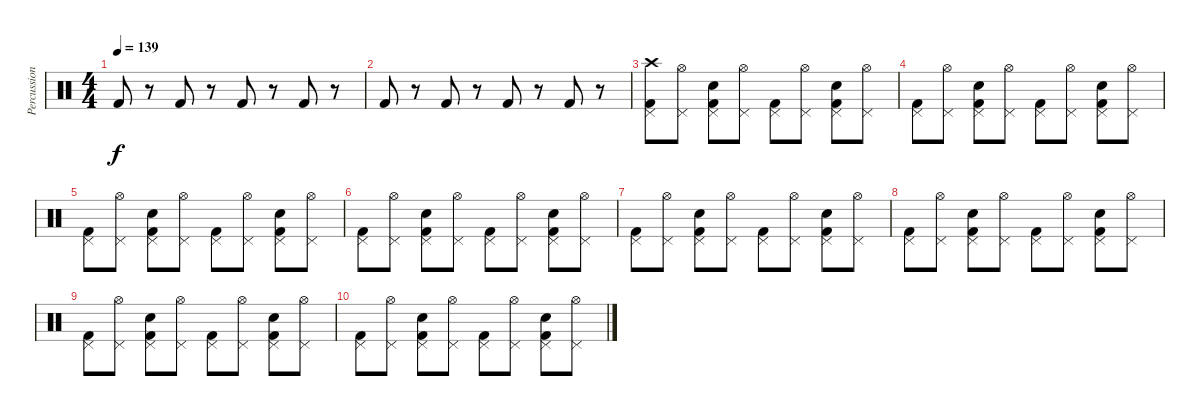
\track ("Percussion" "Percussion") {instrument percussion}
\staff {score}
\articulation defaults
\ts (4 4)
\tempo 139
\clef neutral
\ks c "Kick (hit) 2".8{dy f}
r.8 "Kick (hit) 2".8 r.8 "Kick (hit) 2".8 r.8 "Kick (hit) 2".8 r.8 |
"Kick (hit) 2".8 r.8 "Kick (hit) 2".8 r.8 "Kick (hit) 2".8 r.8 "Kick (hit) 2".8 r.8 |
("Kick (hit) 2" "Pedal Hi-Hat (hit)" "Crash high (hit)").8 ("Pedal Hi-Hat (hit)" "Hi-Hat (open)").8 ("Kick (hit) 2" "Pedal Hi-Hat (hit)" "Electric Snare (hit)").8 ("Pedal Hi-Hat (hit)" "Hi-Hat (open)").8 ("Kick (hit) 2" "Pedal Hi-Hat (hit)").8 ("Pedal Hi-Hat (hit)" "Hi-Hat (open)").8 ("Kick (hit) 2" "Pedal Hi-Hat (hit)" "Electric Snare (hit)").8 ("Pedal Hi-Hat (hit)" "Hi-Hat (open)").8 |
("Kick (hit) 2" "Pedal Hi-Hat (hit)").8 ("Pedal Hi-Hat (hit)" "Hi-Hat (open)").8 ("Kick (hit) 2" "Pedal Hi-Hat (hit)" "Electric Snare (hit)").8 ("Pedal Hi-Hat (hit)" "Hi-Hat (open)").8 ("Kick (hit) 2" "Pedal Hi-Hat (hit)").8 ("Pedal Hi-Hat (hit)" "Hi-Hat (open)").8 ("Kick (hit) 2" "Pedal Hi-Hat (hit)" "Electric Snare (hit)").8 ("Pedal Hi-Hat (hit)" "Hi-Hat (open)").8 |
("Kick (hit) 2" "Pedal Hi-Hat (hit)").8 ("Pedal Hi-Hat (hit)" "Hi-Hat (open)").8 ("Kick (hit) 2" "Pedal Hi-Hat (hit)" "Electric Snare (hit)").8 ("Pedal Hi-Hat (hit)" "Hi-Hat (open)").8 ("Kick (hit) 2" "Pedal Hi-Hat (hit)").8 ("Pedal Hi-Hat (hit)" "Hi-Hat (open)").8 ("Kick (hit) 2" "Pedal Hi-Hat (hit)" "Electric Snare (hit)").8 ("Pedal Hi-Hat (hit)" "Hi-Hat (open)").8 |
("Kick (hit) 2" "Pedal Hi-Hat (hit)").8 ("Pedal Hi-Hat (hit)" "Hi-Hat (open)").8 ("Kick (hit) 2" "Pedal Hi-Hat (hit)" "Electric Snare (hit)").8 ("Pedal Hi-Hat (hit)" "Hi-Hat (open)").8 ("Kick (hit) 2" "Pedal Hi-Hat (hit)").8 ("Pedal Hi-Hat (hit)" "Hi-Hat (open)").8 ("Kick (hit) 2" "Pedal Hi-Hat (hit)" "Electric Snare (hit)").8 ("Pedal Hi-Hat (hit)" "Hi-Hat (open)").8 |
("Kick (hit) 2" "Pedal Hi-Hat (hit)").8 ("Pedal Hi-Hat (hit)" "Hi-Hat (open)").8 ("Kick (hit) 2" "Pedal Hi-Hat (hit)" "Electric Snare (hit)").8 ("Pedal Hi-Hat (hit)" "Hi-Hat (open)").8 ("Kick (hit) 2" "Pedal Hi-Hat (hit)").8 ("Pedal Hi-Hat (hit)" "Hi-Hat (open)").8 ("Kick (hit) 2" "Pedal Hi-Hat (hit)" "Electric Snare (hit)").8 ("Pedal Hi-Hat (hit)" "Hi-Hat (open)").8 |
("Kick (hit) 2" "Pedal Hi-Hat (hit)").8 ("Pedal Hi-Hat (hit)" "Hi-Hat (open)").8 ("Kick (hit) 2" "Pedal Hi-Hat (hit)" "Electric Snare (hit)").8 ("Pedal Hi-Hat (hit)" "Hi-Hat (open)").8 ("Kick (hit) 2" "Pedal Hi-Hat (hit)").8 ("Pedal Hi-Hat (hit)" "Hi-Hat (open)").8 ("Kick (hit) 2" "Pedal Hi-Hat (hit)" "Electric Snare (hit)").8 ("Pedal Hi-Hat (hit)" "Hi-Hat (open)").8 |
("Kick (hit) 2" "Pedal Hi-Hat (hit)").8 ("Pedal Hi-Hat (hit)" "Hi-Hat (open)").8 ("Kick (hit) 2" "Pedal Hi-Hat (hit)" "Electric Snare (hit)").8 ("Pedal Hi-Hat (hit)" "Hi-Hat (open)").8 ("Kick (hit) 2" "Pedal Hi-Hat (hit)").8 ("Pedal Hi-Hat (hit)" "Hi-Hat (open)").8 ("Kick (hit) 2" "Pedal Hi-Hat (hit)" "Electric Snare (hit)").8 ("Pedal Hi-Hat (hit)" "Hi-Hat (open)").8 |
("Kick (hit) 2" "Pedal Hi-Hat (hit)").8 ("Pedal Hi-Hat (hit)" "Hi-Hat (open)").8 ("Kick (hit) 2" "Pedal Hi-Hat (hit)" "Electric Snare (hit)").8 ("Pedal Hi-Hat (hit)" "Hi-Hat (open)").8 ("Kick (hit) 2" "Pedal Hi-Hat (hit)").8 ("Pedal Hi-Hat (hit)" "Hi-Hat (open)").8 ("Kick (hit) 2" "Pedal Hi-Hat (hit)" "Electric Snare (hit)").8 ("Pedal Hi-Hat (hit)" "Hi-Hat (open)").8
